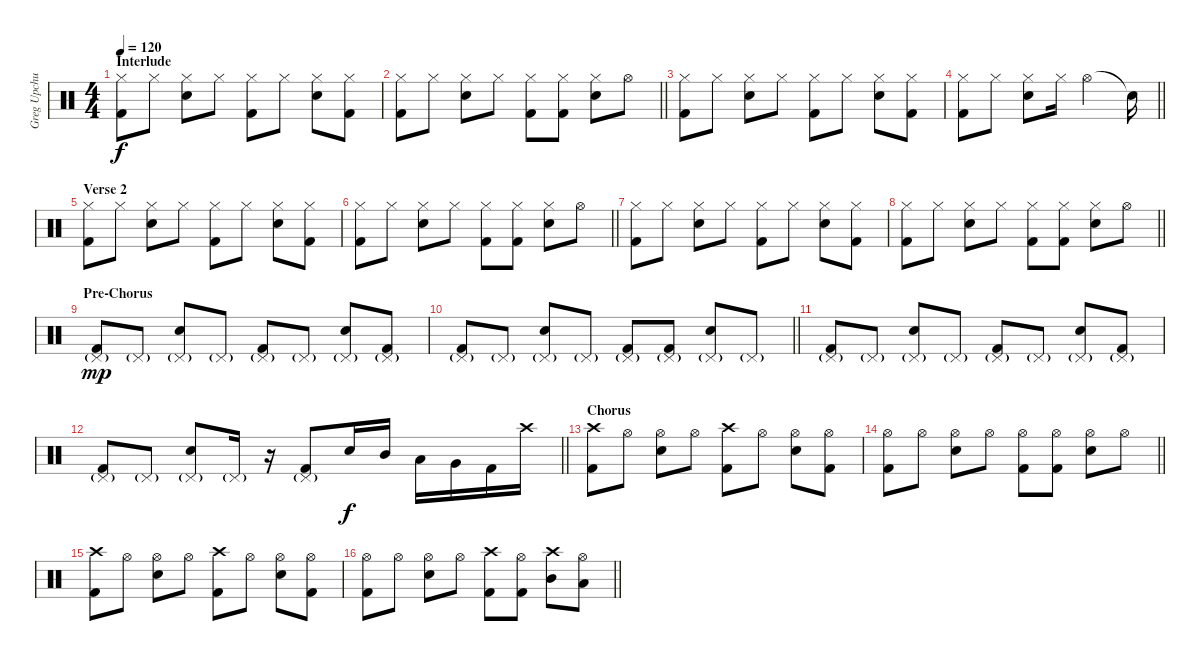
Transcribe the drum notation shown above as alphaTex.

\track ("Greg Upchurch(drums)" "Greg Upchu") {instrument percussion}
\staff {score}
\articulation defaults
\ts (4 4)
\section ("" "Interlude")
\tempo 120
\clef neutral
\ks c
("Hi-Hat (closed)" "Kick (hit) 2").8{dy f} "Hi-Hat (closed)".8 ("Hi-Hat (closed)" "Snare (hit) 2").8 "Hi-Hat (closed)".8 ("Hi-Hat (closed)" "Kick (hit) 2").8 "Hi-Hat (closed)".8 ("Hi-Hat (closed)" "Snare (hit) 2").8 ("Hi-Hat (closed)" "Kick (hit) 2").8 |
\barLineRight lightlight
("Hi-Hat (closed)" "Kick (hit) 2").8 "Hi-Hat (closed)".8 ("Hi-Hat (closed)" "Snare (hit) 2").8 "Hi-Hat (closed)".8 ("Hi-Hat (closed)" "Kick (hit) 2").8 ("Hi-Hat (closed)" "Kick (hit) 2").8 ("Hi-Hat (closed)" "Snare (hit) 2").8 "Hi-Hat (open)".8 |
("Hi-Hat (closed)" "Kick (hit) 2").8 "Hi-Hat (closed)".8 ("Hi-Hat (closed)" "Snare (hit) 2").8 "Hi-Hat (closed)".8 ("Hi-Hat (closed)" "Kick (hit) 2").8 "Hi-Hat (closed)".8 ("Hi-Hat (closed)" "Snare (hit) 2").8 ("Hi-Hat (closed)" "Kick (hit) 2").8 |
\barLineRight lightlight
("Hi-Hat (closed)" "Kick (hit) 2").8 "Hi-Hat (closed)".8 ("Hi-Hat (closed)" "Snare (hit) 2").8 "Hi-Hat (closed)".16 "Hi-Hat (open)".2 "Snare (hit)"{t}.16 |
\section ("" "Verse 2")
("Hi-Hat (closed)" "Kick (hit) 2").8 "Hi-Hat (closed)".8 ("Hi-Hat (closed)" "Snare (hit) 2").8 "Hi-Hat (closed)".8 ("Hi-Hat (closed)" "Kick (hit) 2").8 "Hi-Hat (closed)".8 ("Hi-Hat (closed)" "Snare (hit) 2").8 ("Hi-Hat (closed)" "Kick (hit) 2").8 |
\barLineRight lightlight
("Hi-Hat (closed)" "Kick (hit) 2").8 "Hi-Hat (closed)".8 ("Hi-Hat (closed)" "Snare (hit) 2").8 "Hi-Hat (closed)".8 ("Hi-Hat (closed)" "Kick (hit) 2").8 ("Hi-Hat (closed)" "Kick (hit) 2").8 ("Hi-Hat (closed)" "Snare (hit) 2").8 "Hi-Hat (open)".8 |
("Hi-Hat (closed)" "Kick (hit) 2").8 "Hi-Hat (closed)".8 ("Hi-Hat (closed)" "Snare (hit) 2").8 "Hi-Hat (closed)".8 ("Hi-Hat (closed)" "Kick (hit) 2").8 "Hi-Hat (closed)".8 ("Hi-Hat (closed)" "Snare (hit) 2").8 ("Hi-Hat (closed)" "Kick (hit) 2").8 |
\barLineRight lightlight
("Hi-Hat (closed)" "Kick (hit) 2").8 "Hi-Hat (closed)".8 ("Hi-Hat (closed)" "Snare (hit) 2").8 "Hi-Hat (closed)".8 ("Hi-Hat (closed)" "Kick (hit) 2").8 ("Hi-Hat (closed)" "Kick (hit) 2").8 ("Hi-Hat (closed)" "Snare (hit) 2").8 "Hi-Hat (open)".8 |
\section ("" "Pre-Chorus")
("Pedal Hi-Hat (hit)"{g} "Kick (hit) 2").8{dy mp} "Pedal Hi-Hat (hit)"{g}.8 ("Pedal Hi-Hat (hit)"{g} "Snare (hit) 2").8 "Pedal Hi-Hat (hit)"{g}.8 ("Pedal Hi-Hat (hit)"{g} "Kick (hit) 2").8 "Pedal Hi-Hat (hit)"{g}.8 ("Pedal Hi-Hat (hit)"{g} "Snare (hit) 2").8 ("Pedal Hi-Hat (hit)"{g} "Kick (hit) 2").8 |
\barLineRight lightlight
("Pedal Hi-Hat (hit)"{g} "Kick (hit) 2").8 "Pedal Hi-Hat (hit)"{g}.8 ("Pedal Hi-Hat (hit)"{g} "Snare (hit) 2").8 "Pedal Hi-Hat (hit)"{g}.8 ("Pedal Hi-Hat (hit)"{g} "Kick (hit) 2").8 ("Pedal Hi-Hat (hit)"{g} "Kick (hit) 2").8 ("Pedal Hi-Hat (hit)"{g} "Snare (hit) 2").8 "Pedal Hi-Hat (hit)"{g}.8 |
("Pedal Hi-Hat (hit)"{g} "Kick (hit) 2").8 "Pedal Hi-Hat (hit)"{g}.8 ("Pedal Hi-Hat (hit)"{g} "Snare (hit) 2").8 "Pedal Hi-Hat (hit)"{g}.8 ("Pedal Hi-Hat (hit)"{g} "Kick (hit) 2").8 "Pedal Hi-Hat (hit)"{g}.8 ("Pedal Hi-Hat (hit)"{g} "Snare (hit) 2").8 ("Pedal Hi-Hat (hit)"{g} "Kick (hit) 2").8 |
\barLineRight lightlight
("Pedal Hi-Hat (hit)"{g} "Kick (hit) 2").8 "Pedal Hi-Hat (hit)"{g}.8 ("Pedal Hi-Hat (hit)"{g} "Snare (hit) 2").8 "Pedal Hi-Hat (hit)"{g}.16 r.16 ("Pedal Hi-Hat (hit)"{g} "Kick (hit) 2").8 "Snare (hit) 2".16{dy f} "Mid Tom (hit)".16 "Low Tom (hit)".16 "Very Low Tom (hit)".16 "Kick (hit) 2".16 "Crash high (hit)".16 |
\section ("" "Chorus")
("Crash high (hit)" "Kick (hit) 2").8 "Hi-Hat (open)".8 ("Hi-Hat (open)" "Snare (hit) 2").8 "Hi-Hat (open)".8 ("Crash high (hit)" "Kick (hit) 2").8 "Hi-Hat (open)".8 ("Hi-Hat (open)" "Snare (hit) 2").8 ("Hi-Hat (open)" "Kick (hit) 2").8 |
\barLineRight lightlight
("Hi-Hat (open)" "Kick (hit) 2").8 "Hi-Hat (open)".8 ("Hi-Hat (open)" "Snare (hit) 2").8 "Hi-Hat (open)".8 ("Hi-Hat (open)" "Kick (hit) 2").8 ("Hi-Hat (open)" "Kick (hit) 2").8 ("Hi-Hat (open)" "Snare (hit) 2").8 "Hi-Hat (open)".8 |
("Crash high (hit)" "Kick (hit) 2").8 "Hi-Hat (open)".8 ("Hi-Hat (open)" "Snare (hit) 2").8 "Hi-Hat (open)".8 ("Crash high (hit)" "Kick (hit) 2").8 "Hi-Hat (open)".8 ("Hi-Hat (open)" "Snare (hit) 2").8 ("Hi-Hat (open)" "Kick (hit) 2").8 |
\barLineRight lightlight
("Hi-Hat (open)" "Kick (hit) 2").8 "Hi-Hat (open)".8 ("Hi-Hat (open)" "Snare (hit) 2").8 "Hi-Hat (open)".8 ("Crash high (hit)" "Kick (hit) 2").8 ("Hi-Hat (open)" "Kick (hit) 2").8 ("Crash high (hit)" "Mid Tom (hit)").8 ("Hi-Hat (open)" "Low Tom (hit)").8
